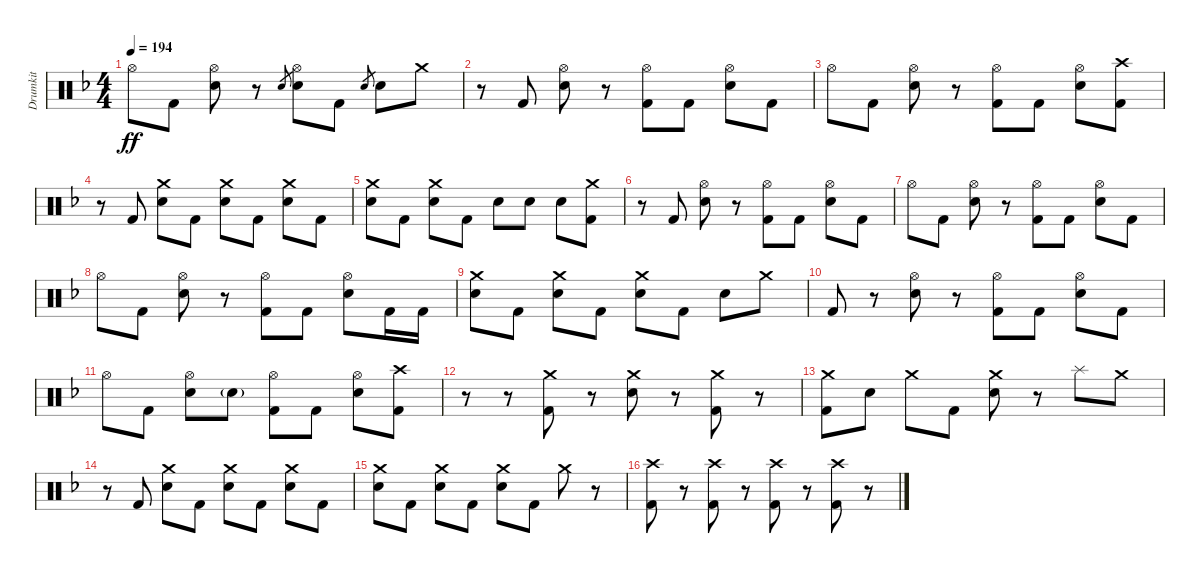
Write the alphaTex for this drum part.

\track ("Drumkit" "Drumkit") {instrument percussion}
\staff {score}
\articulation defaults
\ts (4 4)
\tempo 194
\clef neutral
\ks f "Hi-Hat (open)".8{dy ff} "Kick (hit) 2".8
("Hi-Hat (open)" "Snare (hit) 2").8 r.8 "Snare (hit)".8{gr} ("Hi-Hat (open)" "Snare (hit) 2").8 "Kick (hit) 2".8 "Snare (hit)".8{gr} "Snare (hit) 2".8 "Crash medium (hit)".8 |
r.8 "Kick (hit) 2".8 ("Hi-Hat (open)" "Snare (hit) 2").8 r.8 ("Hi-Hat (open)" "Kick (hit) 2").8 "Kick (hit) 2".8 ("Hi-Hat (open)" "Snare (hit) 2").8 "Kick (hit) 2".8 |
"Hi-Hat (open)".8 "Kick (hit) 2".8 ("Hi-Hat (open)" "Snare (hit) 2").8 r.8 ("Hi-Hat (open)" "Kick (hit) 2").8 "Kick (hit) 2".8 ("Hi-Hat (open)" "Snare (hit) 2").8 ("Crash high (hit)" "Kick (hit) 2").8 |
r.8 "Kick (hit) 2".8 ("Crash medium (hit)" "Snare (hit) 2").8 "Kick (hit) 2".8 ("Crash medium (hit)" "Snare (hit) 2").8 "Kick (hit) 2".8 ("Crash medium (hit)" "Snare (hit) 2").8 "Kick (hit) 2".8 |
("Crash medium (hit)" "Snare (hit) 2").8 "Kick (hit) 2".8 ("Crash medium (hit)" "Snare (hit) 2").8 "Kick (hit) 2".8 "Snare (hit) 2".8 "Snare (hit) 2".8 "Snare (hit) 2".8 ("Crash medium (hit)" "Kick (hit) 2").8 |
r.8 "Kick (hit) 2".8 ("Hi-Hat (open)" "Snare (hit) 2").8 r.8 ("Hi-Hat (open)" "Kick (hit) 2").8 "Kick (hit) 2".8 ("Hi-Hat (open)" "Snare (hit) 2").8 "Kick (hit) 2".8 |
"Hi-Hat (open)".8 "Kick (hit) 2".8 ("Hi-Hat (open)" "Snare (hit) 2").8 r.8 ("Hi-Hat (open)" "Kick (hit) 2").8 "Kick (hit) 2".8 ("Hi-Hat (open)" "Snare (hit) 2").8 "Kick (hit) 2".8 |
"Hi-Hat (open)".8 "Kick (hit) 2".8 ("Hi-Hat (open)" "Snare (hit) 2").8 r.8 ("Hi-Hat (open)" "Kick (hit) 2").8 "Kick (hit) 2".8 ("Hi-Hat (open)" "Snare (hit) 2").8 "Kick (hit) 2".16 "Kick (hit) 2".16 |
("Crash medium (hit)" "Snare (hit) 2").8 "Kick (hit) 2".8 ("Crash medium (hit)" "Snare (hit) 2").8 "Kick (hit) 2".8 ("Crash medium (hit)" "Snare (hit) 2").8 "Kick (hit) 2".8 "Snare (hit) 2".8 "Crash medium (hit)".8 |
"Kick (hit) 2".8 r.8 ("Hi-Hat (open)" "Snare (hit) 2").8 r.8 ("Hi-Hat (open)" "Kick (hit) 2").8 "Kick (hit) 2".8 ("Hi-Hat (open)" "Snare (hit) 2").8 "Kick (hit) 2".8 |
"Hi-Hat (open)".8 "Kick (hit) 2".8 ("Hi-Hat (open)" "Snare (hit) 2").8 "Snare (hit) 2"{g}.8 ("Hi-Hat (open)" "Kick (hit) 2").8 "Kick (hit) 2".8 ("Hi-Hat (open)" "Snare (hit) 2").8 ("Crash high (hit)" "Kick (hit) 2").8 |
r.8 r.8 ("Crash medium (hit)" "Kick (hit) 2").8 r.8 ("Crash medium (hit)" "Snare (hit) 2").8 r.8 ("Crash medium (hit)" "Kick (hit) 2").8 r.8 |
("Crash medium (hit)" "Kick (hit) 2").8 "Snare (hit) 2".8 "Crash medium (hit)".8 "Kick (hit) 2".8 ("Crash medium (hit)" "Snare (hit) 2").8 r.8 "Splash (hit)".8 "Crash medium (hit)".8 |
r.8 "Kick (hit) 2".8 ("Crash medium (hit)" "Snare (hit) 2").8 "Kick (hit) 2".8 ("Crash medium (hit)" "Snare (hit) 2").8 "Kick (hit) 2".8 ("Crash medium (hit)" "Snare (hit) 2").8 "Kick (hit) 2".8 |
("Crash medium (hit)" "Snare (hit) 2").8 "Kick (hit) 2".8 ("Crash medium (hit)" "Snare (hit) 2").8 "Kick (hit) 2".8 ("Crash medium (hit)" "Snare (hit) 2").8 "Kick (hit) 2".8 "Crash medium (hit)".8 r.8 |
("Crash high (hit)" "Kick (hit) 2").8 r.8 ("Crash high (hit)" "Kick (hit) 2").8 r.8 ("Crash high (hit)" "Kick (hit) 2").8 r.8 ("Crash high (hit)" "Kick (hit) 2").8 r.8
